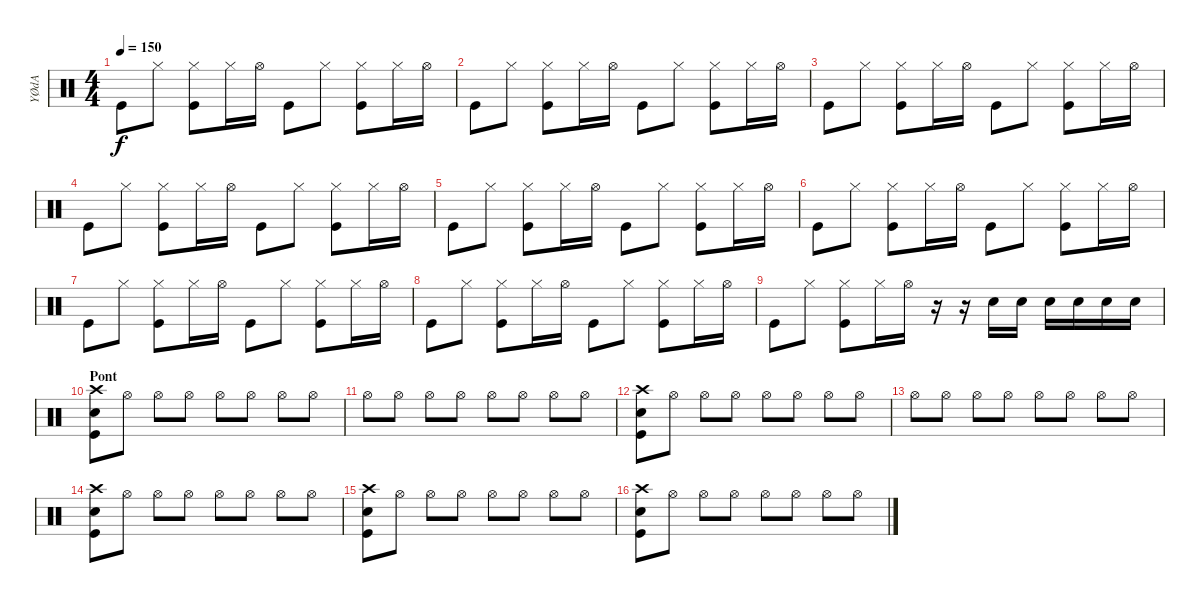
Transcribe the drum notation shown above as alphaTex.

\track ("YØdA" "YØdA") {instrument percussion}
\staff {score}
\articulation defaults
\ts (4 4)
\tempo 150
\clef neutral
\ks c "Kick (hit)".8{dy f} "Hi-Hat (closed)".8
("Hi-Hat (closed)" "Kick (hit)").8 "Hi-Hat (closed)".16 "Hi-Hat (open)".16 "Kick (hit)".8 "Hi-Hat (closed)".8 ("Hi-Hat (closed)" "Kick (hit)").8 "Hi-Hat (closed)".16 "Hi-Hat (open)".16 |
"Kick (hit)".8 "Hi-Hat (closed)".8 ("Hi-Hat (closed)" "Kick (hit)").8 "Hi-Hat (closed)".16 "Hi-Hat (open)".16 "Kick (hit)".8 "Hi-Hat (closed)".8 ("Hi-Hat (closed)" "Kick (hit)").8 "Hi-Hat (closed)".16 "Hi-Hat (open)".16 |
"Kick (hit)".8 "Hi-Hat (closed)".8 ("Hi-Hat (closed)" "Kick (hit)").8 "Hi-Hat (closed)".16 "Hi-Hat (open)".16 "Kick (hit)".8 "Hi-Hat (closed)".8 ("Hi-Hat (closed)" "Kick (hit)").8 "Hi-Hat (closed)".16 "Hi-Hat (open)".16 |
"Kick (hit)".8 "Hi-Hat (closed)".8 ("Hi-Hat (closed)" "Kick (hit)").8 "Hi-Hat (closed)".16 "Hi-Hat (open)".16 "Kick (hit)".8 "Hi-Hat (closed)".8 ("Hi-Hat (closed)" "Kick (hit)").8 "Hi-Hat (closed)".16 "Hi-Hat (open)".16 |
"Kick (hit)".8 "Hi-Hat (closed)".8 ("Hi-Hat (closed)" "Kick (hit)").8 "Hi-Hat (closed)".16 "Hi-Hat (open)".16 "Kick (hit)".8 "Hi-Hat (closed)".8 ("Hi-Hat (closed)" "Kick (hit)").8 "Hi-Hat (closed)".16 "Hi-Hat (open)".16 |
"Kick (hit)".8 "Hi-Hat (closed)".8 ("Hi-Hat (closed)" "Kick (hit)").8 "Hi-Hat (closed)".16 "Hi-Hat (open)".16 "Kick (hit)".8 "Hi-Hat (closed)".8 ("Hi-Hat (closed)" "Kick (hit)").8 "Hi-Hat (closed)".16 "Hi-Hat (open)".16 |
"Kick (hit)".8 "Hi-Hat (closed)".8 ("Hi-Hat (closed)" "Kick (hit)").8 "Hi-Hat (closed)".16 "Hi-Hat (open)".16 "Kick (hit)".8 "Hi-Hat (closed)".8 ("Hi-Hat (closed)" "Kick (hit)").8 "Hi-Hat (closed)".16 "Hi-Hat (open)".16 |
"Kick (hit)".8 "Hi-Hat (closed)".8 ("Hi-Hat (closed)" "Kick (hit)").8 "Hi-Hat (closed)".16 "Hi-Hat (open)".16 "Kick (hit)".8 "Hi-Hat (closed)".8 ("Hi-Hat (closed)" "Kick (hit)").8 "Hi-Hat (closed)".16 "Hi-Hat (open)".16 |
"Kick (hit)".8 "Hi-Hat (closed)".8 ("Hi-Hat (closed)" "Kick (hit)").8 "Hi-Hat (closed)".16 "Hi-Hat (open)".16 r.16 r.16 "Electric Snare (hit)".16 "Electric Snare (hit)".16 "Electric Snare (hit)".16 "Electric Snare (hit)".16 "Electric Snare (hit)".16 "Electric Snare (hit)".16 |
\section ("" "Pont")
("Crash high (hit)" "Electric Snare (hit)" "Kick (hit)").8 "Hi-Hat (open)".8 "Hi-Hat (open)".8 "Hi-Hat (open)".8 "Hi-Hat (open)".8 "Hi-Hat (open)".8 "Hi-Hat (open)".8 "Hi-Hat (open)".8 |
"Hi-Hat (open)".8 "Hi-Hat (open)".8 "Hi-Hat (open)".8 "Hi-Hat (open)".8 "Hi-Hat (open)".8 "Hi-Hat (open)".8 "Hi-Hat (open)".8 "Hi-Hat (open)".8 |
("Crash high (hit)" "Electric Snare (hit)" "Kick (hit)").8 "Hi-Hat (open)".8 "Hi-Hat (open)".8 "Hi-Hat (open)".8 "Hi-Hat (open)".8 "Hi-Hat (open)".8 "Hi-Hat (open)".8 "Hi-Hat (open)".8 |
"Hi-Hat (open)".8 "Hi-Hat (open)".8 "Hi-Hat (open)".8 "Hi-Hat (open)".8 "Hi-Hat (open)".8 "Hi-Hat (open)".8 "Hi-Hat (open)".8 "Hi-Hat (open)".8 |
("Crash high (hit)" "Electric Snare (hit)" "Kick (hit)").8 "Hi-Hat (open)".8 "Hi-Hat (open)".8 "Hi-Hat (open)".8 "Hi-Hat (open)".8 "Hi-Hat (open)".8 "Hi-Hat (open)".8 "Hi-Hat (open)".8 |
("Crash high (hit)" "Electric Snare (hit)" "Kick (hit)").8 "Hi-Hat (open)".8 "Hi-Hat (open)".8 "Hi-Hat (open)".8 "Hi-Hat (open)".8 "Hi-Hat (open)".8 "Hi-Hat (open)".8 "Hi-Hat (open)".8 |
("Crash high (hit)" "Electric Snare (hit)" "Kick (hit)").8 "Hi-Hat (open)".8 "Hi-Hat (open)".8 "Hi-Hat (open)".8 "Hi-Hat (open)".8 "Hi-Hat (open)".8 "Hi-Hat (open)".8 "Hi-Hat (open)".8
